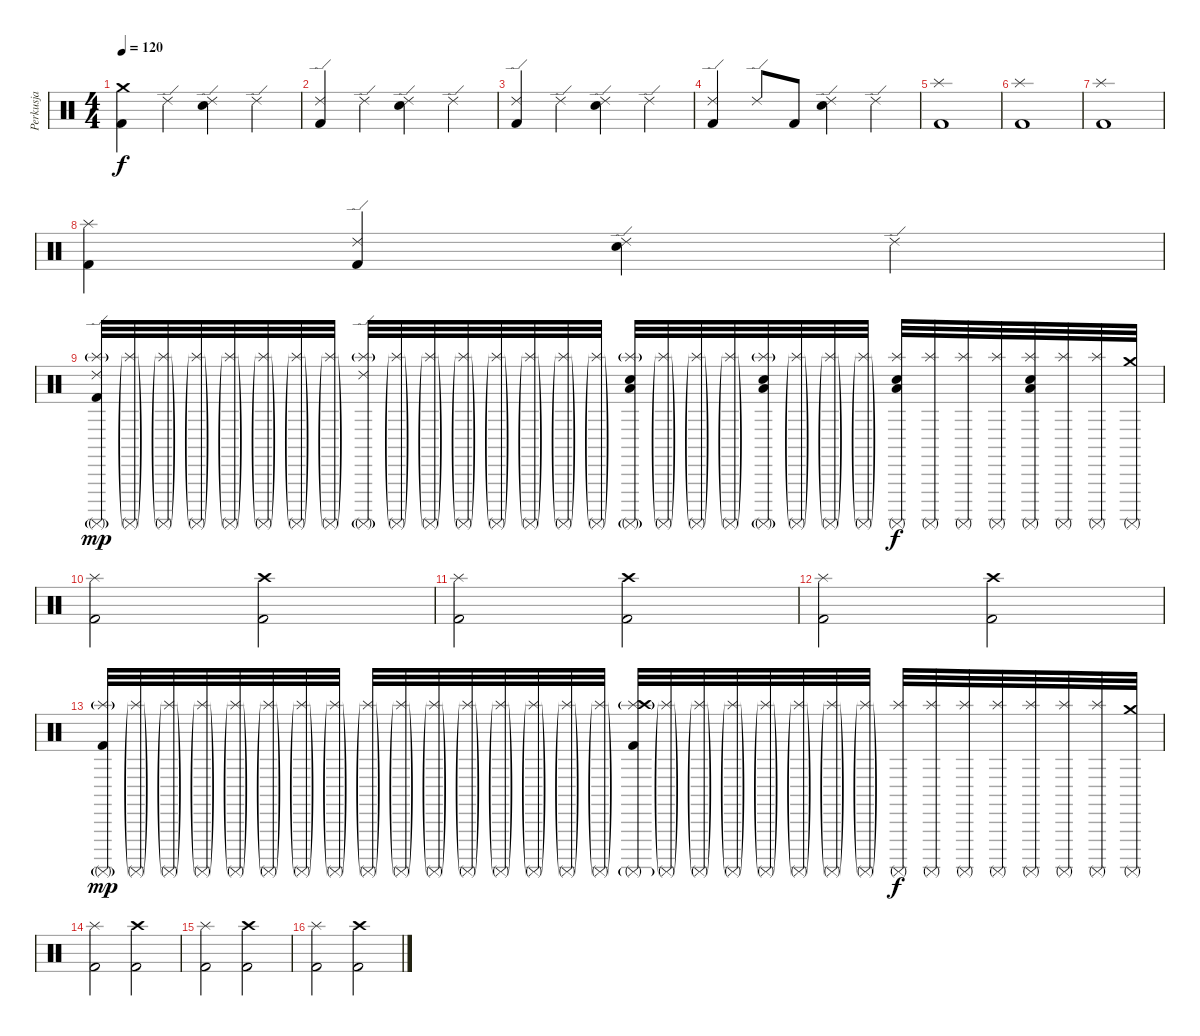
\track ("Perkusja" "Perkusja") {instrument percussion}
\staff {score}
\articulation defaults
\ts (4 4)
\tempo 120
\clef neutral
\ks c
("Crash medium (hit)" "Kick (hit) 2").4{dy f} "Ride (edge) 2".4 ("Ride (edge) 2" "Snare (hit) 2").4 "Ride (edge) 2".4 |
("Ride (edge) 2" "Kick (hit) 2").4 "Ride (edge) 2".4 ("Ride (edge) 2" "Snare (hit) 2").4 "Ride (edge) 2".4 |
("Ride (edge) 2" "Kick (hit) 2").4 "Ride (edge) 2".4 ("Ride (edge) 2" "Snare (hit) 2").4 "Ride (edge) 2".4 |
("Ride (edge) 2" "Kick (hit) 2").4 "Ride (edge) 2".8 "Kick (hit) 2".8 ("Ride (edge) 2" "Snare (hit) 2").4 "Ride (edge) 2".4 |
("Splash (hit)" "Kick (hit) 2").1 |
("Splash (hit)" "Kick (hit) 2").1 |
("Splash (hit)" "Kick (hit) 2").1 |
("Splash (hit)" "Kick (hit) 2").4 ("Ride (edge) 2" "Kick (hit) 2").4 ("Ride (edge) 2" "Snare (hit) 2").4 "Ride (edge) 2".4 |
("Surdo (mute)"{g} "Splash (hit)"{g} "Ride (edge) 2" "Kick (hit) 2").32{dy mp} ("Surdo (mute)"{g} "Splash (hit)"{g}).32 ("Surdo (mute)"{g} "Splash (hit)"{g}).32 ("Surdo (mute)"{g} "Splash (hit)"{g}).32 ("Surdo (mute)"{g} "Splash (hit)"{g}).32 ("Surdo (mute)"{g} "Splash (hit)"{g}).32 ("Surdo (mute)"{g} "Splash (hit)"{g}).32 ("Surdo (mute)"{g} "Splash (hit)"{g}).32 ("Surdo (mute)"{g} "Splash (hit)"{g} "Ride (edge) 2").32 ("Surdo (mute)"{g} "Splash (hit)"{g}).32 ("Surdo (mute)"{g} "Splash (hit)"{g}).32 ("Surdo (mute)"{g} "Splash (hit)"{g}).32 ("Surdo (mute)"{g} "Splash (hit)"{g}).32 ("Surdo (mute)"{g} "Splash (hit)"{g}).32 ("Surdo (mute)"{g} "Splash (hit)"{g}).32 ("Surdo (mute)"{g} "Splash (hit)"{g}).32 ("Surdo (mute)"{g} "Splash (hit)"{g} "Low Tom (hit)" "Snare (hit) 2").32 ("Surdo (mute)"{g} "Splash (hit)"{g}).32 ("Surdo (mute)"{g} "Splash (hit)"{g}).32 ("Surdo (mute)"{g} "Splash (hit)"{g}).32 ("Surdo (mute)"{g} "Splash (hit)"{g} "Low Tom (hit)" "Snare (hit) 2").32 ("Surdo (mute)"{g} "Splash (hit)"{g}).32 ("Surdo (mute)"{g} "Splash (hit)"{g}).32 ("Surdo (mute)"{g} "Splash (hit)"{g}).32 ("Surdo (mute)" "Splash (hit)" "Low Tom (hit)" "Snare (hit) 2").32{dy f} ("Surdo (mute)" "Splash (hit)").32 ("Surdo (mute)" "Splash (hit)").32 ("Surdo (mute)" "Splash (hit)").32 ("Surdo (mute)" "Splash (hit)" "Low Tom (hit)" "Snare (hit) 2").32 ("Surdo (mute)" "Splash (hit)").32 ("Surdo (mute)" "Splash (hit)").32 ("Surdo (mute)" "Crash medium (hit)").32 |
("Splash (hit)" "Kick (hit) 2").2 ("Crash high (hit)" "Kick (hit) 2").2 |
("Splash (hit)" "Kick (hit) 2").2 ("Crash high (hit)" "Kick (hit) 2").2 |
("Splash (hit)" "Kick (hit) 2").2 ("Crash high (hit)" "Kick (hit) 2").2 |
("Surdo (mute)"{g} "Splash (hit)"{g} "Kick (hit) 2").32{dy mp} ("Surdo (mute)"{g} "Splash (hit)"{g}).32 ("Surdo (mute)"{g} "Splash (hit)"{g}).32 ("Surdo (mute)"{g} "Splash (hit)"{g}).32 ("Surdo (mute)"{g} "Splash (hit)"{g}).32 ("Surdo (mute)"{g} "Splash (hit)"{g}).32 ("Surdo (mute)"{g} "Splash (hit)"{g}).32 ("Surdo (mute)"{g} "Splash (hit)"{g}).32 ("Surdo (mute)"{g} "Splash (hit)"{g}).32 ("Surdo (mute)"{g} "Splash (hit)"{g}).32 ("Surdo (mute)"{g} "Splash (hit)"{g}).32 ("Surdo (mute)"{g} "Splash (hit)"{g}).32 ("Surdo (mute)"{g} "Splash (hit)"{g}).32 ("Surdo (mute)"{g} "Splash (hit)"{g}).32 ("Surdo (mute)"{g} "Splash (hit)"{g}).32 ("Surdo (mute)"{g} "Splash (hit)"{g}).32 ("Surdo (mute)"{g} "Splash (hit)"{g} "Crash high (hit)" "Kick (hit) 2").32 ("Surdo (mute)"{g} "Splash (hit)"{g}).32 ("Surdo (mute)"{g} "Splash (hit)"{g}).32 ("Surdo (mute)"{g} "Splash (hit)"{g}).32 ("Surdo (mute)"{g} "Splash (hit)"{g}).32 ("Surdo (mute)"{g} "Splash (hit)"{g}).32 ("Surdo (mute)"{g} "Splash (hit)"{g}).32 ("Surdo (mute)"{g} "Splash (hit)"{g}).32 ("Surdo (mute)" "Splash (hit)").32{dy f} ("Surdo (mute)" "Splash (hit)").32 ("Surdo (mute)" "Splash (hit)").32 ("Surdo (mute)" "Splash (hit)").32 ("Surdo (mute)" "Splash (hit)").32 ("Surdo (mute)" "Splash (hit)").32 ("Surdo (mute)" "Splash (hit)").32 ("Surdo (mute)" "Crash medium (hit)").32 |
("Splash (hit)" "Kick (hit) 2").2 ("Crash high (hit)" "Kick (hit) 2").2 |
("Splash (hit)" "Kick (hit) 2").2 ("Crash high (hit)" "Kick (hit) 2").2 |
("Splash (hit)" "Kick (hit) 2").2 ("Crash high (hit)" "Kick (hit) 2").2
